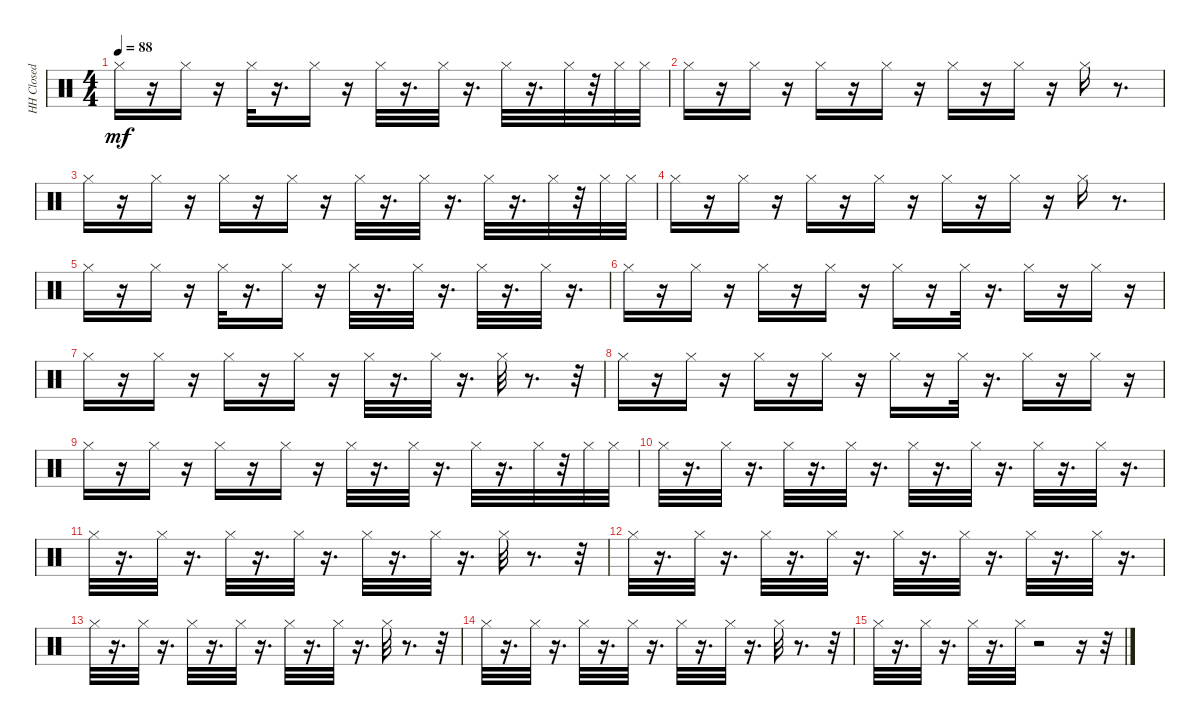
\track ("HH Closed" "HH Closed") {instrument percussion}
\staff {score}
\articulation defaults
\ts (4 4)
\tempo 88
\clef neutral
\ks c "Hi-Hat (closed)".16{dy mf}
r.16 "Hi-Hat (closed)".16 r.16 "Hi-Hat (closed)".32 r.16{d} "Hi-Hat (closed)".16 r.16 "Hi-Hat (closed)".32 r.16{d} "Hi-Hat (closed)".32 r.16{d} "Hi-Hat (closed)".32 r.16{d} "Hi-Hat (closed)".32 r.32 "Hi-Hat (closed)".32 "Hi-Hat (closed)".32 |
"Hi-Hat (closed)".16 r.16 "Hi-Hat (closed)".16 r.16 "Hi-Hat (closed)".16 r.16 "Hi-Hat (closed)".16 r.16 "Hi-Hat (closed)".16 r.16 "Hi-Hat (closed)".16 r.16 "Hi-Hat (closed)".16 r.8{d} |
"Hi-Hat (closed)".16 r.16 "Hi-Hat (closed)".16 r.16 "Hi-Hat (closed)".16 r.16 "Hi-Hat (closed)".16 r.16 "Hi-Hat (closed)".32 r.16{d} "Hi-Hat (closed)".32 r.16{d} "Hi-Hat (closed)".32 r.16{d} "Hi-Hat (closed)".32 r.32 "Hi-Hat (closed)".32 "Hi-Hat (closed)".32 |
"Hi-Hat (closed)".16 r.16 "Hi-Hat (closed)".16 r.16 "Hi-Hat (closed)".16 r.16 "Hi-Hat (closed)".16 r.16 "Hi-Hat (closed)".16 r.16 "Hi-Hat (closed)".16 r.16 "Hi-Hat (closed)".16 r.8{d} |
"Hi-Hat (closed)".16 r.16 "Hi-Hat (closed)".16 r.16 "Hi-Hat (closed)".32 r.16{d} "Hi-Hat (closed)".16 r.16 "Hi-Hat (closed)".32 r.16{d} "Hi-Hat (closed)".32 r.16{d} "Hi-Hat (closed)".32 r.16{d} "Hi-Hat (closed)".32 r.16{d} |
"Hi-Hat (closed)".16 r.16 "Hi-Hat (closed)".16 r.16 "Hi-Hat (closed)".16 r.16 "Hi-Hat (closed)".16 r.16 "Hi-Hat (closed)".16 r.16 "Hi-Hat (closed)".32 r.16{d} "Hi-Hat (closed)".16 r.16 "Hi-Hat (closed)".16 r.16 |
"Hi-Hat (closed)".16 r.16 "Hi-Hat (closed)".16 r.16 "Hi-Hat (closed)".16 r.16 "Hi-Hat (closed)".16 r.16 "Hi-Hat (closed)".32 r.16{d} "Hi-Hat (closed)".32 r.16{d} "Hi-Hat (closed)".32 r.8{d} r.32 |
"Hi-Hat (closed)".16 r.16 "Hi-Hat (closed)".16 r.16 "Hi-Hat (closed)".16 r.16 "Hi-Hat (closed)".16 r.16 "Hi-Hat (closed)".16 r.16 "Hi-Hat (closed)".32 r.16{d} "Hi-Hat (closed)".16 r.16 "Hi-Hat (closed)".16 r.16 |
"Hi-Hat (closed)".16 r.16 "Hi-Hat (closed)".16 r.16 "Hi-Hat (closed)".16 r.16 "Hi-Hat (closed)".16 r.16 "Hi-Hat (closed)".32 r.16{d} "Hi-Hat (closed)".32 r.16{d} "Hi-Hat (closed)".32 r.16{d} "Hi-Hat (closed)".32 r.32 "Hi-Hat (closed)".32 "Hi-Hat (closed)".32 |
"Hi-Hat (closed)".32 r.16{d} "Hi-Hat (closed)".32 r.16{d} "Hi-Hat (closed)".32 r.16{d} "Hi-Hat (closed)".32 r.16{d} "Hi-Hat (closed)".32 r.16{d} "Hi-Hat (closed)".32 r.16{d} "Hi-Hat (closed)".32 r.16{d} "Hi-Hat (closed)".32 r.16{d} |
"Hi-Hat (closed)".32 r.16{d} "Hi-Hat (closed)".32 r.16{d} "Hi-Hat (closed)".32 r.16{d} "Hi-Hat (closed)".32 r.16{d} "Hi-Hat (closed)".32 r.16{d} "Hi-Hat (closed)".32 r.16{d} "Hi-Hat (closed)".32 r.8{d} r.32 |
"Hi-Hat (closed)".32 r.16{d} "Hi-Hat (closed)".32 r.16{d} "Hi-Hat (closed)".32 r.16{d} "Hi-Hat (closed)".32 r.16{d} "Hi-Hat (closed)".32 r.16{d} "Hi-Hat (closed)".32 r.16{d} "Hi-Hat (closed)".32 r.16{d} "Hi-Hat (closed)".32 r.16{d} |
"Hi-Hat (closed)".32 r.16{d} "Hi-Hat (closed)".32 r.16{d} "Hi-Hat (closed)".32 r.16{d} "Hi-Hat (closed)".32 r.16{d} "Hi-Hat (closed)".32 r.16{d} "Hi-Hat (closed)".32 r.16{d} "Hi-Hat (closed)".32 r.8{d} r.32 |
"Hi-Hat (closed)".32 r.16{d} "Hi-Hat (closed)".32 r.16{d} "Hi-Hat (closed)".32 r.16{d} "Hi-Hat (closed)".32 r.16{d} "Hi-Hat (closed)".32 r.16{d} "Hi-Hat (closed)".32 r.16{d} "Hi-Hat (closed)".32 r.8{d} r.32 |
"Hi-Hat (closed)".32 r.16{d} "Hi-Hat (closed)".32 r.16{d} "Hi-Hat (closed)".32 r.16{d} "Hi-Hat (closed)".32 r.2 r.16 r.32
